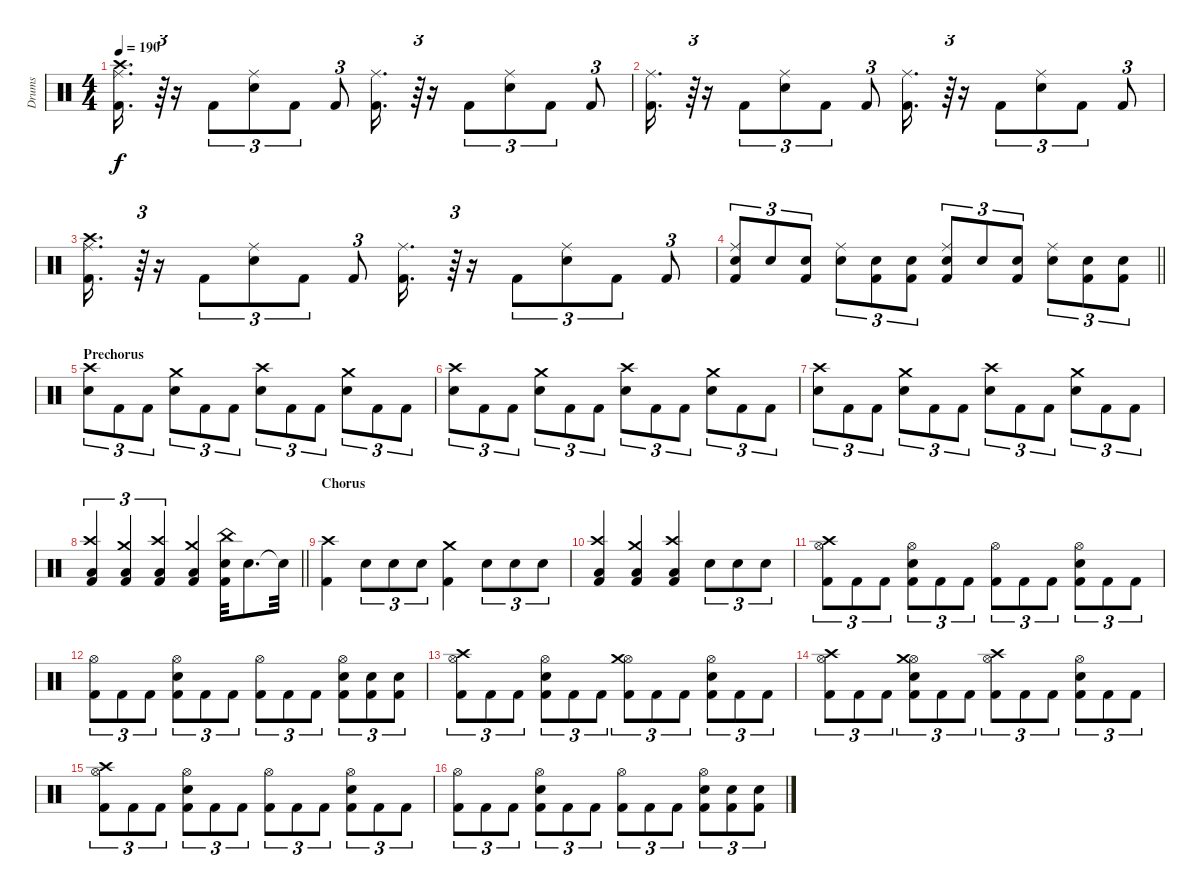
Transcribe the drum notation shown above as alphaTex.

\track ("Drums" "Drums") {instrument percussion}
\staff {score}
\articulation defaults
\ts (4 4)
\tempo 190
\clef neutral
\ks c
("Kick (hit) 2" "Crash high (hit)" "Ride (middle)").16{d dy f} r.64{tu (3 2)} r.16 "Kick (hit) 2".8{tu (3 2)} ("Snare (hit) 2" "Ride (middle)").8{tu (3 2)} "Kick (hit) 2".8{tu (3 2)} "Kick (hit) 2".8{tu (3 2)} ("Kick (hit) 2" "Ride (middle)").16{d} r.64{tu (3 2)} r.16 "Kick (hit) 2".8{tu (3 2)} ("Snare (hit) 2" "Ride (middle)").8{tu (3 2)} "Kick (hit) 2".8{tu (3 2)} "Kick (hit) 2".8{tu (3 2)} |
("Kick (hit) 2" "Ride (middle)").16{d} r.64{tu (3 2)} r.16 "Kick (hit) 2".8{tu (3 2)} ("Snare (hit) 2" "Ride (middle)").8{tu (3 2)} "Kick (hit) 2".8{tu (3 2)} "Kick (hit) 2".8{tu (3 2)} ("Kick (hit) 2" "Ride (middle)").16{d} r.64{tu (3 2)} r.16 "Kick (hit) 2".8{tu (3 2)} ("Snare (hit) 2" "Ride (middle)").8{tu (3 2)} "Kick (hit) 2".8{tu (3 2)} "Kick (hit) 2".8{tu (3 2)} |
("Kick (hit) 2" "Crash high (hit)" "Ride (middle)").16{d} r.64{tu (3 2)} r.16 "Kick (hit) 2".8{tu (3 2)} ("Snare (hit) 2" "Ride (middle)").8{tu (3 2)} "Kick (hit) 2".8{tu (3 2)} "Kick (hit) 2".8{tu (3 2)} ("Kick (hit) 2" "Ride (middle)").16{d} r.64{tu (3 2)} r.16 "Kick (hit) 2".8{tu (3 2)} ("Snare (hit) 2" "Ride (middle)").8{tu (3 2)} "Kick (hit) 2".8{tu (3 2)} "Kick (hit) 2".8{tu (3 2)} |
\barLineRight lightlight
("Kick (hit) 2" "Snare (hit) 2" "Ride (middle)").8{tu (3 2)} "Snare (hit) 2".8{tu (3 2)} ("Kick (hit) 2" "Snare (hit) 2").8{tu (3 2)} ("Snare (hit) 2" "Ride (middle)").8{tu (3 2)} ("Kick (hit) 2" "Snare (hit) 2").8{tu (3 2)} ("Kick (hit) 2" "Snare (hit) 2").8{tu (3 2)} ("Kick (hit) 2" "Snare (hit) 2" "Ride (middle)").8{tu (3 2)} "Snare (hit) 2".8{tu (3 2)} ("Kick (hit) 2" "Snare (hit) 2").8{tu (3 2)} ("Snare (hit) 2" "Ride (middle)").8{tu (3 2)} ("Kick (hit) 2" "Snare (hit) 2").8{tu (3 2)} ("Kick (hit) 2" "Snare (hit) 2").8{tu (3 2)} |
\section ("" "Prechorus")
("Snare (hit) 2" "Crash high (hit)").8{tu (3 2)} "Kick (hit) 2".8{tu (3 2)} "Kick (hit) 2".8{tu (3 2)} ("Snare (hit) 2" "Crash medium (hit)").8{tu (3 2)} "Kick (hit) 2".8{tu (3 2)} "Kick (hit) 2".8{tu (3 2)} ("Snare (hit) 2" "Crash high (hit)").8{tu (3 2)} "Kick (hit) 2".8{tu (3 2)} "Kick (hit) 2".8{tu (3 2)} ("Snare (hit) 2" "Crash medium (hit)").8{tu (3 2)} "Kick (hit) 2".8{tu (3 2)} "Kick (hit) 2".8{tu (3 2)} |
("Snare (hit) 2" "Crash high (hit)").8{tu (3 2)} "Kick (hit) 2".8{tu (3 2)} "Kick (hit) 2".8{tu (3 2)} ("Snare (hit) 2" "Crash medium (hit)").8{tu (3 2)} "Kick (hit) 2".8{tu (3 2)} "Kick (hit) 2".8{tu (3 2)} ("Snare (hit) 2" "Crash high (hit)").8{tu (3 2)} "Kick (hit) 2".8{tu (3 2)} "Kick (hit) 2".8{tu (3 2)} ("Snare (hit) 2" "Crash medium (hit)").8{tu (3 2)} "Kick (hit) 2".8{tu (3 2)} "Kick (hit) 2".8{tu (3 2)} |
("Snare (hit) 2" "Crash high (hit)").8{tu (3 2)} "Kick (hit) 2".8{tu (3 2)} "Kick (hit) 2".8{tu (3 2)} ("Snare (hit) 2" "Crash medium (hit)").8{tu (3 2)} "Kick (hit) 2".8{tu (3 2)} "Kick (hit) 2".8{tu (3 2)} ("Snare (hit) 2" "Crash high (hit)").8{tu (3 2)} "Kick (hit) 2".8{tu (3 2)} "Kick (hit) 2".8{tu (3 2)} ("Snare (hit) 2" "Crash medium (hit)").8{tu (3 2)} "Kick (hit) 2".8{tu (3 2)} "Kick (hit) 2".8{tu (3 2)} |
\barLineRight lightlight
("Kick (hit) 2" "Low Floor Tom (hit)" "Crash high (hit)").4{tu (3 2)} ("Kick (hit) 2" "Low Floor Tom (hit)" "Crash medium (hit)").4{tu (3 2)} ("Kick (hit) 2" "Low Floor Tom (hit)" "Crash high (hit)").4{tu (3 2)} ("Kick (hit) 2" "Low Floor Tom (hit)" "Crash medium (hit)").4 ("Kick (hit) 2" "Snare (hit) 2" "China (hit)").32 "Snare (hit) 2".8{d} "Snare (hit)"{t}.32 |
\section ("" "Chorus")
("Kick (hit) 2" "Crash high (hit)").4 "Snare (hit) 2".8{tu (3 2)} "Snare (hit) 2".8{tu (3 2)} "Snare (hit) 2".8{tu (3 2)} ("Kick (hit) 2" "Crash medium (hit)").4 "Snare (hit) 2".8{tu (3 2)} "Snare (hit) 2".8{tu (3 2)} "Snare (hit) 2".8{tu (3 2)} |
("Kick (hit) 2" "Low Floor Tom (hit)" "Crash high (hit)").4 ("Kick (hit) 2" "Low Floor Tom (hit)" "Crash medium (hit)").4 ("Kick (hit) 2" "Low Floor Tom (hit)" "Crash high (hit)").4 "Snare (hit) 2".8{tu (3 2)} "Snare (hit) 2".8{tu (3 2)} "Snare (hit) 2".8{tu (3 2)} |
("Kick (hit) 2" "Hi-Hat (open)" "Crash high (hit)").8{tu (3 2)} "Kick (hit) 2".8{tu (3 2)} "Kick (hit) 2".8{tu (3 2)} ("Kick (hit) 2" "Snare (hit) 2" "Hi-Hat (open)").8{tu (3 2)} "Kick (hit) 2".8{tu (3 2)} "Kick (hit) 2".8{tu (3 2)} ("Kick (hit) 2" "Hi-Hat (open)").8{tu (3 2)} "Kick (hit) 2".8{tu (3 2)} "Kick (hit) 2".8{tu (3 2)} ("Kick (hit) 2" "Snare (hit) 2" "Hi-Hat (open)").8{tu (3 2)} "Kick (hit) 2".8{tu (3 2)} "Kick (hit) 2".8{tu (3 2)} |
("Kick (hit) 2" "Hi-Hat (open)").8{tu (3 2)} "Kick (hit) 2".8{tu (3 2)} "Kick (hit) 2".8{tu (3 2)} ("Kick (hit) 2" "Snare (hit) 2" "Hi-Hat (open)").8{tu (3 2)} "Kick (hit) 2".8{tu (3 2)} "Kick (hit) 2".8{tu (3 2)} ("Kick (hit) 2" "Hi-Hat (open)").8{tu (3 2)} "Kick (hit) 2".8{tu (3 2)} "Kick (hit) 2".8{tu (3 2)} ("Kick (hit) 2" "Snare (hit) 2" "Hi-Hat (open)").8{tu (3 2)} ("Kick (hit) 2" "Snare (hit) 2").8{tu (3 2)} ("Kick (hit) 2" "Snare (hit) 2").8{tu (3 2)} |
("Kick (hit) 2" "Hi-Hat (open)" "Crash high (hit)").8{tu (3 2)} "Kick (hit) 2".8{tu (3 2)} "Kick (hit) 2".8{tu (3 2)} ("Kick (hit) 2" "Snare (hit) 2" "Hi-Hat (open)").8{tu (3 2)} "Kick (hit) 2".8{tu (3 2)} "Kick (hit) 2".8{tu (3 2)} ("Kick (hit) 2" "Hi-Hat (open)" "Crash medium (hit)").8{tu (3 2)} "Kick (hit) 2".8{tu (3 2)} "Kick (hit) 2".8{tu (3 2)} ("Kick (hit) 2" "Snare (hit) 2" "Hi-Hat (open)").8{tu (3 2)} "Kick (hit) 2".8{tu (3 2)} "Kick (hit) 2".8{tu (3 2)} |
("Kick (hit) 2" "Hi-Hat (open)" "Crash high (hit)").8{tu (3 2)} "Kick (hit) 2".8{tu (3 2)} "Kick (hit) 2".8{tu (3 2)} ("Kick (hit) 2" "Snare (hit) 2" "Hi-Hat (open)" "Crash medium (hit)").8{tu (3 2)} "Kick (hit) 2".8{tu (3 2)} "Kick (hit) 2".8{tu (3 2)} ("Kick (hit) 2" "Hi-Hat (open)" "Crash high (hit)").8{tu (3 2)} "Kick (hit) 2".8{tu (3 2)} "Kick (hit) 2".8{tu (3 2)} ("Kick (hit) 2" "Snare (hit) 2" "Hi-Hat (open)").8{tu (3 2)} "Kick (hit) 2".8{tu (3 2)} "Kick (hit) 2".8{tu (3 2)} |
("Kick (hit) 2" "Hi-Hat (open)" "Crash high (hit)").8{tu (3 2)} "Kick (hit) 2".8{tu (3 2)} "Kick (hit) 2".8{tu (3 2)} ("Kick (hit) 2" "Snare (hit) 2" "Hi-Hat (open)").8{tu (3 2)} "Kick (hit) 2".8{tu (3 2)} "Kick (hit) 2".8{tu (3 2)} ("Kick (hit) 2" "Hi-Hat (open)").8{tu (3 2)} "Kick (hit) 2".8{tu (3 2)} "Kick (hit) 2".8{tu (3 2)} ("Kick (hit) 2" "Snare (hit) 2" "Hi-Hat (open)").8{tu (3 2)} "Kick (hit) 2".8{tu (3 2)} "Kick (hit) 2".8{tu (3 2)} |
("Kick (hit) 2" "Hi-Hat (open)").8{tu (3 2)} "Kick (hit) 2".8{tu (3 2)} "Kick (hit) 2".8{tu (3 2)} ("Kick (hit) 2" "Snare (hit) 2" "Hi-Hat (open)").8{tu (3 2)} "Kick (hit) 2".8{tu (3 2)} "Kick (hit) 2".8{tu (3 2)} ("Kick (hit) 2" "Hi-Hat (open)").8{tu (3 2)} "Kick (hit) 2".8{tu (3 2)} "Kick (hit) 2".8{tu (3 2)} ("Kick (hit) 2" "Snare (hit) 2" "Hi-Hat (open)").8{tu (3 2)} ("Kick (hit) 2" "Snare (hit) 2").8{tu (3 2)} ("Kick (hit) 2" "Snare (hit) 2").8{tu (3 2)}
